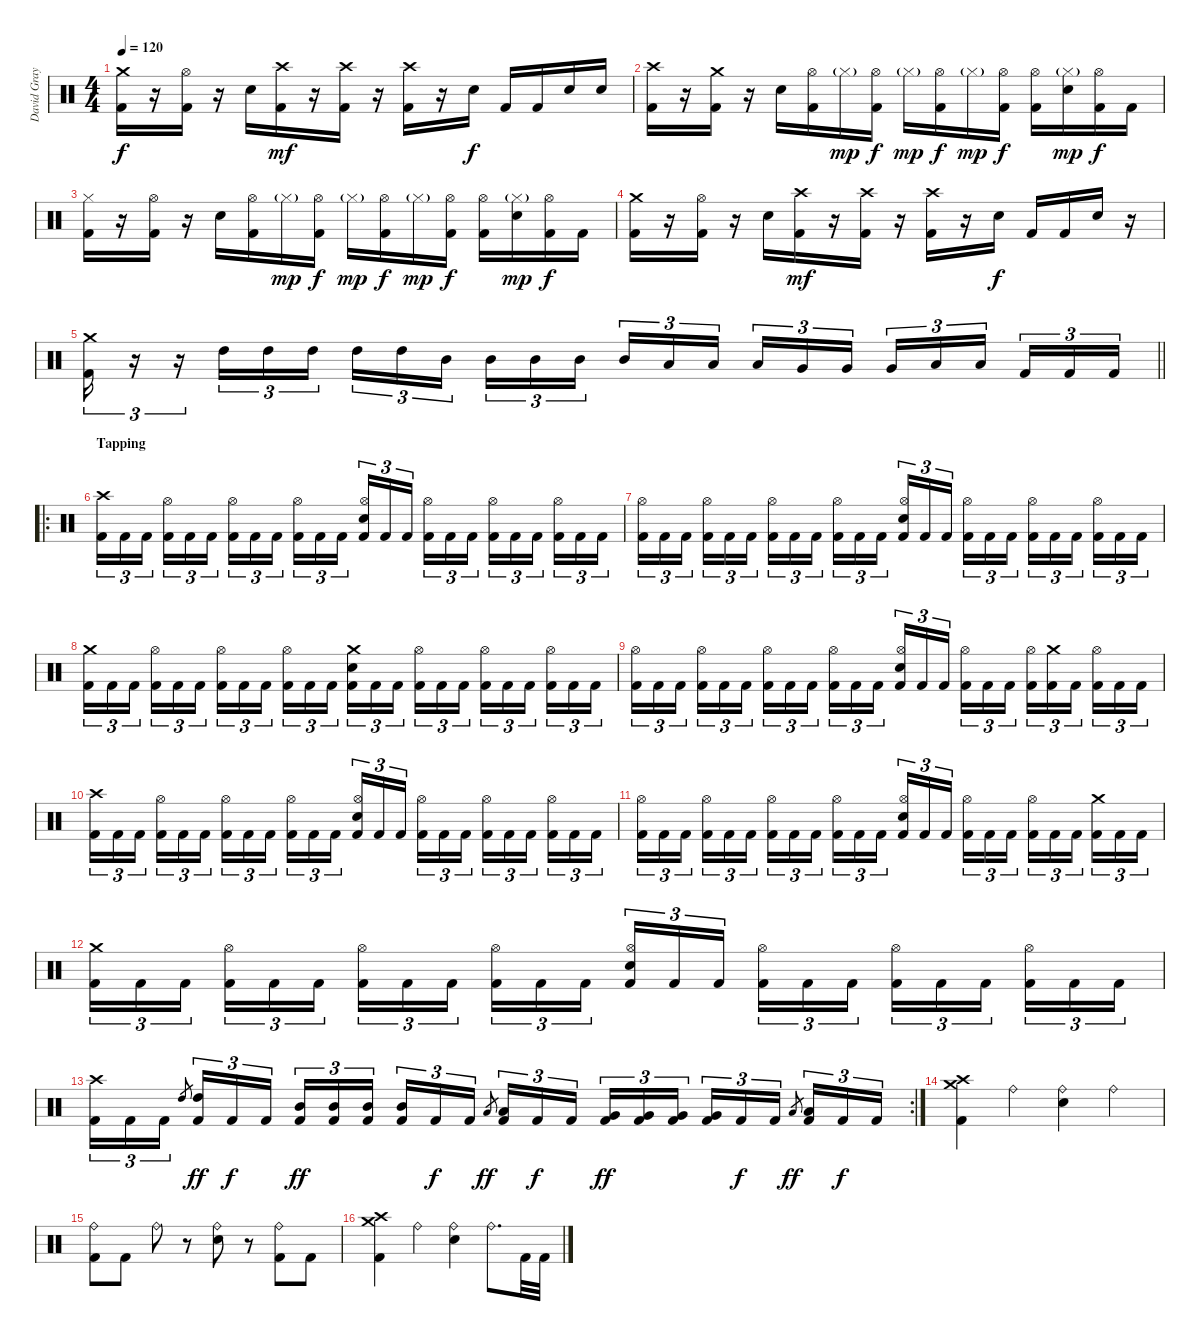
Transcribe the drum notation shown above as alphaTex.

\track ("David Gray" "David Gray") {instrument percussion}
\staff {score}
\articulation defaults
\ts (4 4)
\tempo 120
\clef neutral
\ks c
("Crash medium (hit)" "Kick (hit) 2").16{dy f} r.16 ("Hi-Hat (open)" "Kick (hit) 2").16 r.16 "Electric Snare (hit)".16 ("Crash high (hit)" "Kick (hit) 2").16{dy mf} r.16 ("Crash high (hit)" "Kick (hit) 2").16 r.16 ("Crash high (hit)" "Kick (hit) 2").16 r.16 "Electric Snare (hit)".16{dy f} "Kick (hit) 2".16 "Kick (hit) 2".16 "Electric Snare (hit)".16 "Electric Snare (hit)".16 |
("Crash high (hit)" "Kick (hit) 2").16 r.16 ("Crash medium (hit)" "Kick (hit) 2").16 r.16 "Electric Snare (hit)".16 ("Hi-Hat (open)" "Kick (hit) 2").16 "Hi-Hat (closed)"{g}.16{dy mp} ("Hi-Hat (open)" "Kick (hit) 2").16{dy f} "Hi-Hat (closed)"{g}.16{dy mp} ("Hi-Hat (open)" "Kick (hit) 2").16{dy f} "Hi-Hat (closed)"{g}.16{dy mp} ("Hi-Hat (open)" "Kick (hit) 2").16{dy f} ("Hi-Hat (open)" "Kick (hit) 2").16 ("Hi-Hat (closed)"{g} "Electric Snare (hit)").16{dy mp} ("Hi-Hat (open)" "Kick (hit) 2").16{dy f} "Kick (hit) 2".16 |
("Hi-Hat (closed)" "Kick (hit) 2").16 r.16 ("Hi-Hat (open)" "Kick (hit) 2").16 r.16 "Electric Snare (hit)".16 ("Hi-Hat (open)" "Kick (hit) 2").16 "Hi-Hat (closed)"{g}.16{dy mp} ("Hi-Hat (open)" "Kick (hit) 2").16{dy f} "Hi-Hat (closed)"{g}.16{dy mp} ("Hi-Hat (open)" "Kick (hit) 2").16{dy f} "Hi-Hat (closed)"{g}.16{dy mp} ("Hi-Hat (open)" "Kick (hit) 2").16{dy f} ("Hi-Hat (open)" "Kick (hit) 2").16 ("Hi-Hat (closed)"{g} "Electric Snare (hit)").16{dy mp} ("Hi-Hat (open)" "Kick (hit) 2").16{dy f} "Kick (hit) 2".16 |
("Crash medium (hit)" "Kick (hit) 2").16 r.16 ("Hi-Hat (open)" "Kick (hit) 2").16 r.16 "Electric Snare (hit)".16 ("Crash high (hit)" "Kick (hit) 2").16{dy mf} r.16 ("Crash high (hit)" "Kick (hit) 2").16 r.16 ("Crash high (hit)" "Kick (hit) 2").16 r.16 "Electric Snare (hit)".16{dy f} "Kick (hit) 2".16 "Kick (hit) 2".16 "Electric Snare (hit)".16 r.16 |
\barLineRight lightlight
("Crash medium (hit)" "Kick (hit) 2").16{tu (3 2)} r.16{tu (3 2)} r.16{tu (3 2)} "High Tom (hit)".16{tu (3 2)} "High Tom (hit)".16{tu (3 2)} "High Tom (hit)".16{tu (3 2)} "High Tom (hit)".16{tu (3 2)} "High Tom (hit)".16{tu (3 2)} "Mid Tom (hit)".16{tu (3 2) beam splitsecondary} "Mid Tom (hit)".16{tu (3 2)} "Mid Tom (hit)".16{tu (3 2)} "Mid Tom (hit)".16{tu (3 2)} "Mid Tom (hit)".16{tu (3 2)} "Low Tom (hit)".16{tu (3 2)} "Low Tom (hit)".16{tu (3 2) beam splitsecondary} "Low Tom (hit)".16{tu (3 2)} "Very Low Tom (hit)".16{tu (3 2)} "Very Low Tom (hit)".16{tu (3 2)} "Very Low Tom (hit)".16{tu (3 2)} "Low Floor Tom (hit)".16{tu (3 2)} "Low Floor Tom (hit)".16{tu (3 2) beam splitsecondary} "Kick (hit) 2".16{tu (3 2)} "Kick (hit) 2".16{tu (3 2)} "Kick (hit) 2".16{tu (3 2)} |
\ro
\section ("" "Tapping")
("Crash high (hit)" "Kick (hit) 2").16{tu (3 2)} "Kick (hit) 2".16{tu (3 2)} "Kick (hit) 2".16{tu (3 2) beam splitsecondary} ("Hi-Hat (open)" "Kick (hit) 2").16{tu (3 2)} "Kick (hit) 2".16{tu (3 2)} "Kick (hit) 2".16{tu (3 2)} ("Hi-Hat (open)" "Kick (hit) 2").16{tu (3 2)} "Kick (hit) 2".16{tu (3 2)} "Kick (hit) 2".16{tu (3 2) beam splitsecondary} ("Hi-Hat (open)" "Kick (hit) 2").16{tu (3 2)} "Kick (hit) 2".16{tu (3 2)} "Kick (hit) 2".16{tu (3 2)} ("Hi-Hat (open)" "Electric Snare (hit)" "Kick (hit) 2").16{tu (3 2)} "Kick (hit) 2".16{tu (3 2)} "Kick (hit) 2".16{tu (3 2) beam splitsecondary} ("Hi-Hat (open)" "Kick (hit) 2").16{tu (3 2)} "Kick (hit) 2".16{tu (3 2)} "Kick (hit) 2".16{tu (3 2)} ("Hi-Hat (open)" "Kick (hit) 2").16{tu (3 2)} "Kick (hit) 2".16{tu (3 2)} "Kick (hit) 2".16{tu (3 2) beam splitsecondary} ("Hi-Hat (open)" "Kick (hit) 2").16{tu (3 2)} "Kick (hit) 2".16{tu (3 2)} "Kick (hit) 2".16{tu (3 2)} |
("Hi-Hat (open)" "Kick (hit) 2").16{tu (3 2)} "Kick (hit) 2".16{tu (3 2)} "Kick (hit) 2".16{tu (3 2) beam splitsecondary} ("Hi-Hat (open)" "Kick (hit) 2").16{tu (3 2)} "Kick (hit) 2".16{tu (3 2)} "Kick (hit) 2".16{tu (3 2)} ("Hi-Hat (open)" "Kick (hit) 2").16{tu (3 2)} "Kick (hit) 2".16{tu (3 2)} "Kick (hit) 2".16{tu (3 2) beam splitsecondary} ("Hi-Hat (open)" "Kick (hit) 2").16{tu (3 2)} "Kick (hit) 2".16{tu (3 2)} "Kick (hit) 2".16{tu (3 2)} ("Hi-Hat (open)" "Electric Snare (hit)" "Kick (hit) 2").16{tu (3 2)} "Kick (hit) 2".16{tu (3 2)} "Kick (hit) 2".16{tu (3 2) beam splitsecondary} ("Hi-Hat (open)" "Kick (hit) 2").16{tu (3 2)} "Kick (hit) 2".16{tu (3 2)} "Kick (hit) 2".16{tu (3 2)} ("Hi-Hat (open)" "Kick (hit) 2").16{tu (3 2)} "Kick (hit) 2".16{tu (3 2)} "Kick (hit) 2".16{tu (3 2) beam splitsecondary} ("Hi-Hat (open)" "Kick (hit) 2").16{tu (3 2)} "Kick (hit) 2".16{tu (3 2)} "Kick (hit) 2".16{tu (3 2)} |
("Crash medium (hit)" "Kick (hit) 2").16{tu (3 2)} "Kick (hit) 2".16{tu (3 2)} "Kick (hit) 2".16{tu (3 2) beam splitsecondary} ("Hi-Hat (open)" "Kick (hit) 2").16{tu (3 2)} "Kick (hit) 2".16{tu (3 2)} "Kick (hit) 2".16{tu (3 2)} ("Hi-Hat (open)" "Kick (hit) 2").16{tu (3 2)} "Kick (hit) 2".16{tu (3 2)} "Kick (hit) 2".16{tu (3 2) beam splitsecondary} ("Hi-Hat (open)" "Kick (hit) 2").16{tu (3 2)} "Kick (hit) 2".16{tu (3 2)} "Kick (hit) 2".16{tu (3 2)} ("Crash medium (hit)" "Electric Snare (hit)" "Kick (hit) 2").16{tu (3 2)} "Kick (hit) 2".16{tu (3 2)} "Kick (hit) 2".16{tu (3 2) beam splitsecondary} ("Hi-Hat (open)" "Kick (hit) 2").16{tu (3 2)} "Kick (hit) 2".16{tu (3 2)} "Kick (hit) 2".16{tu (3 2)} ("Hi-Hat (open)" "Kick (hit) 2").16{tu (3 2)} "Kick (hit) 2".16{tu (3 2)} "Kick (hit) 2".16{tu (3 2) beam splitsecondary} ("Hi-Hat (open)" "Kick (hit) 2").16{tu (3 2)} "Kick (hit) 2".16{tu (3 2)} "Kick (hit) 2".16{tu (3 2)} |
("Hi-Hat (open)" "Kick (hit) 2").16{tu (3 2)} "Kick (hit) 2".16{tu (3 2)} "Kick (hit) 2".16{tu (3 2) beam splitsecondary} ("Hi-Hat (open)" "Kick (hit) 2").16{tu (3 2)} "Kick (hit) 2".16{tu (3 2)} "Kick (hit) 2".16{tu (3 2)} ("Hi-Hat (open)" "Kick (hit) 2").16{tu (3 2)} "Kick (hit) 2".16{tu (3 2)} "Kick (hit) 2".16{tu (3 2) beam splitsecondary} ("Hi-Hat (open)" "Kick (hit) 2").16{tu (3 2)} "Kick (hit) 2".16{tu (3 2)} "Kick (hit) 2".16{tu (3 2)} ("Hi-Hat (open)" "Electric Snare (hit)" "Kick (hit) 2").16{tu (3 2)} "Kick (hit) 2".16{tu (3 2)} "Kick (hit) 2".16{tu (3 2) beam splitsecondary} ("Hi-Hat (open)" "Kick (hit) 2").16{tu (3 2)} "Kick (hit) 2".16{tu (3 2)} "Kick (hit) 2".16{tu (3 2)} ("Hi-Hat (open)" "Kick (hit) 2").16{tu (3 2)} ("Crash medium (hit)" "Kick (hit) 2").16{tu (3 2)} "Kick (hit) 2".16{tu (3 2) beam splitsecondary} ("Hi-Hat (open)" "Kick (hit) 2").16{tu (3 2)} "Kick (hit) 2".16{tu (3 2)} "Kick (hit) 2".16{tu (3 2)} |
("Crash high (hit)" "Kick (hit) 2").16{tu (3 2)} "Kick (hit) 2".16{tu (3 2)} "Kick (hit) 2".16{tu (3 2) beam splitsecondary} ("Hi-Hat (open)" "Kick (hit) 2").16{tu (3 2)} "Kick (hit) 2".16{tu (3 2)} "Kick (hit) 2".16{tu (3 2)} ("Hi-Hat (open)" "Kick (hit) 2").16{tu (3 2)} "Kick (hit) 2".16{tu (3 2)} "Kick (hit) 2".16{tu (3 2) beam splitsecondary} ("Hi-Hat (open)" "Kick (hit) 2").16{tu (3 2)} "Kick (hit) 2".16{tu (3 2)} "Kick (hit) 2".16{tu (3 2)} ("Hi-Hat (open)" "Electric Snare (hit)" "Kick (hit) 2").16{tu (3 2)} "Kick (hit) 2".16{tu (3 2)} "Kick (hit) 2".16{tu (3 2) beam splitsecondary} ("Hi-Hat (open)" "Kick (hit) 2").16{tu (3 2)} "Kick (hit) 2".16{tu (3 2)} "Kick (hit) 2".16{tu (3 2)} ("Hi-Hat (open)" "Kick (hit) 2").16{tu (3 2)} "Kick (hit) 2".16{tu (3 2)} "Kick (hit) 2".16{tu (3 2) beam splitsecondary} ("Hi-Hat (open)" "Kick (hit) 2").16{tu (3 2)} "Kick (hit) 2".16{tu (3 2)} "Kick (hit) 2".16{tu (3 2)} |
("Hi-Hat (open)" "Kick (hit) 2").16{tu (3 2)} "Kick (hit) 2".16{tu (3 2)} "Kick (hit) 2".16{tu (3 2) beam splitsecondary} ("Hi-Hat (open)" "Kick (hit) 2").16{tu (3 2)} "Kick (hit) 2".16{tu (3 2)} "Kick (hit) 2".16{tu (3 2)} ("Hi-Hat (open)" "Kick (hit) 2").16{tu (3 2)} "Kick (hit) 2".16{tu (3 2)} "Kick (hit) 2".16{tu (3 2) beam splitsecondary} ("Hi-Hat (open)" "Kick (hit) 2").16{tu (3 2)} "Kick (hit) 2".16{tu (3 2)} "Kick (hit) 2".16{tu (3 2)} ("Hi-Hat (open)" "Electric Snare (hit)" "Kick (hit) 2").16{tu (3 2)} "Kick (hit) 2".16{tu (3 2)} "Kick (hit) 2".16{tu (3 2) beam splitsecondary} ("Hi-Hat (open)" "Kick (hit) 2").16{tu (3 2)} "Kick (hit) 2".16{tu (3 2)} "Kick (hit) 2".16{tu (3 2)} ("Hi-Hat (open)" "Kick (hit) 2").16{tu (3 2)} "Kick (hit) 2".16{tu (3 2)} "Kick (hit) 2".16{tu (3 2) beam splitsecondary} ("Crash medium (hit)" "Kick (hit) 2").16{tu (3 2)} "Kick (hit) 2".16{tu (3 2)} "Kick (hit) 2".16{tu (3 2)} |
("Crash medium (hit)" "Kick (hit) 2").16{tu (3 2)} "Kick (hit) 2".16{tu (3 2)} "Kick (hit) 2".16{tu (3 2) beam splitsecondary} ("Hi-Hat (open)" "Kick (hit) 2").16{tu (3 2)} "Kick (hit) 2".16{tu (3 2)} "Kick (hit) 2".16{tu (3 2)} ("Hi-Hat (open)" "Kick (hit) 2").16{tu (3 2)} "Kick (hit) 2".16{tu (3 2)} "Kick (hit) 2".16{tu (3 2) beam splitsecondary} ("Hi-Hat (open)" "Kick (hit) 2").16{tu (3 2)} "Kick (hit) 2".16{tu (3 2)} "Kick (hit) 2".16{tu (3 2)} ("Hi-Hat (open)" "Electric Snare (hit)" "Kick (hit) 2").16{tu (3 2)} "Kick (hit) 2".16{tu (3 2)} "Kick (hit) 2".16{tu (3 2) beam splitsecondary} ("Hi-Hat (open)" "Kick (hit) 2").16{tu (3 2)} "Kick (hit) 2".16{tu (3 2)} "Kick (hit) 2".16{tu (3 2)} ("Hi-Hat (open)" "Kick (hit) 2").16{tu (3 2)} "Kick (hit) 2".16{tu (3 2)} "Kick (hit) 2".16{tu (3 2) beam splitsecondary} ("Hi-Hat (open)" "Kick (hit) 2").16{tu (3 2)} "Kick (hit) 2".16{tu (3 2)} "Kick (hit) 2".16{tu (3 2)} |
\rc 2
("Crash high (hit)" "Kick (hit) 2").16{tu (3 2)} "Kick (hit) 2".16{tu (3 2)} "Kick (hit) 2".16{tu (3 2)} "High Tom (hit)".8{gr beam splitsecondary} ("High Tom (hit)" "Kick (hit) 2").16{tu (3 2) dy ff} "Kick (hit) 2".16{tu (3 2) dy f} "Kick (hit) 2".16{tu (3 2)} ("Mid Tom (hit)" "Kick (hit) 2").16{tu (3 2) dy ff} ("Mid Tom (hit)" "Kick (hit) 2").16{tu (3 2)} ("Mid Tom (hit)" "Kick (hit) 2").16{tu (3 2) beam splitsecondary} ("Mid Tom (hit)" "Kick (hit) 2").16{tu (3 2)} "Kick (hit) 2".16{tu (3 2) dy f} "Kick (hit) 2".16{tu (3 2)} "Low Tom (hit)".8{gr dy ff} ("Low Tom (hit)" "Kick (hit) 2").16{tu (3 2)} "Kick (hit) 2".16{tu (3 2) dy f} "Kick (hit) 2".16{tu (3 2) beam splitsecondary} ("Very Low Tom (hit)" "Kick (hit) 2").16{tu (3 2) dy ff} ("Very Low Tom (hit)" "Kick (hit) 2").16{tu (3 2)} ("Very Low Tom (hit)" "Kick (hit) 2").16{tu (3 2)} ("Very Low Tom (hit)" "Kick (hit) 2").16{tu (3 2)} "Kick (hit) 2".16{tu (3 2) dy f} "Kick (hit) 2".16{tu (3 2)} "Low Floor Tom (hit)".8{gr dy ff beam splitsecondary} ("Low Floor Tom (hit)" "Kick (hit) 2").16{tu (3 2)} "Kick (hit) 2".16{tu (3 2) dy f} "Kick (hit) 2".16{tu (3 2)} |
("Crash high (hit)" "Crash medium (hit)" "Kick (hit) 2").4 "Ride (bell)".4 ("Ride (bell)" "Electric Snare (hit)").4 "Ride (bell)".4 |
("Ride (bell)" "Kick (hit) 2").8 "Kick (hit) 2".8 "Ride (bell)".8 r.8 ("Ride (bell)" "Electric Snare (hit)").8 r.8 ("Ride (bell)" "Kick (hit) 2").8 "Kick (hit) 2".8 |
("Crash high (hit)" "Crash medium (hit)" "Kick (hit) 2").4 "Ride (bell)".4 ("Ride (bell)" "Electric Snare (hit)").4 "Ride (bell)".8{d} "Kick (hit) 2".32 "Kick (hit) 2".32
